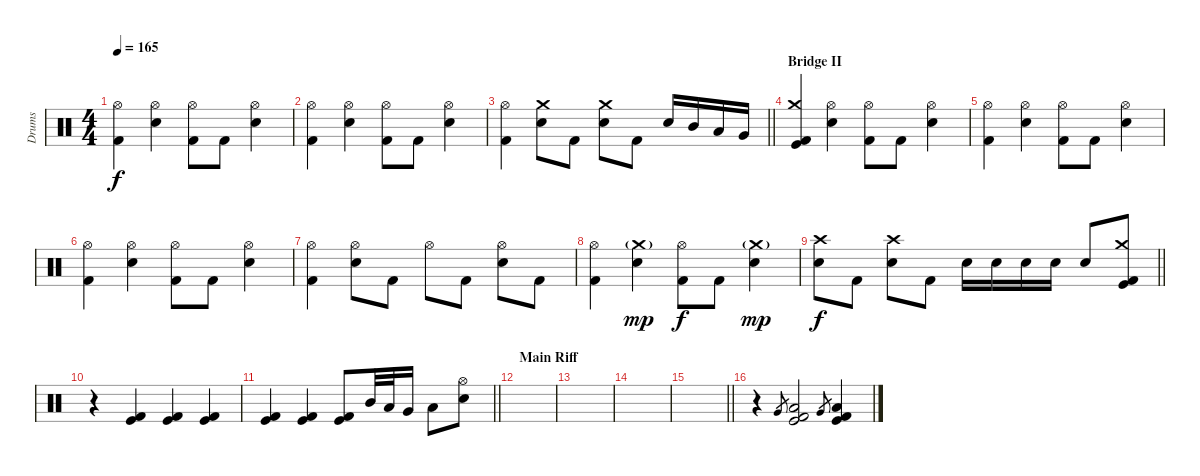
\track ("Drums" "Drums") {instrument percussion}
\staff {score}
\articulation defaults
\ts (4 4)
\tempo 165
\clef neutral
\ks c
("Hi-Hat (open)" "Kick (hit) 2").4{dy f} ("Hi-Hat (open)" "Electric Snare (hit)").4 ("Hi-Hat (open)" "Kick (hit) 2").8 "Kick (hit) 2".8 ("Hi-Hat (open)" "Electric Snare (hit)").4 |
("Hi-Hat (open)" "Kick (hit) 2").4 ("Hi-Hat (open)" "Electric Snare (hit)").4 ("Hi-Hat (open)" "Kick (hit) 2").8 "Kick (hit) 2".8 ("Hi-Hat (open)" "Electric Snare (hit)").4 |
\barLineRight lightlight
("Hi-Hat (open)" "Kick (hit) 2").4 ("Crash medium (hit)" "Electric Snare (hit)").8 "Kick (hit) 2".8 ("Crash medium (hit)" "Electric Snare (hit)").8 "Kick (hit) 2".8 "Electric Snare (hit)".16 "Mid Tom (hit)".16 "Low Tom (hit)".16 "Very Low Tom (hit)".16 |
\section ("" "Bridge II")
("Crash medium (hit)" "Kick (hit) 2" "Kick (hit)").4 ("Hi-Hat (open)" "Electric Snare (hit)").4 ("Hi-Hat (open)" "Kick (hit) 2").8 "Kick (hit) 2".8 ("Hi-Hat (open)" "Electric Snare (hit)").4 |
("Hi-Hat (open)" "Kick (hit) 2").4 ("Hi-Hat (open)" "Electric Snare (hit)").4 ("Hi-Hat (open)" "Kick (hit) 2").8 "Kick (hit) 2".8 ("Hi-Hat (open)" "Electric Snare (hit)").4 |
("Hi-Hat (open)" "Kick (hit) 2").4 ("Hi-Hat (open)" "Electric Snare (hit)").4 ("Hi-Hat (open)" "Kick (hit) 2").8 "Kick (hit) 2".8 ("Hi-Hat (open)" "Electric Snare (hit)").4 |
("Hi-Hat (open)" "Kick (hit) 2").4 ("Hi-Hat (open)" "Electric Snare (hit)").8 "Kick (hit) 2".8 "Hi-Hat (open)".8 "Kick (hit) 2".8 ("Hi-Hat (open)" "Electric Snare (hit)").8 "Kick (hit) 2".8 |
("Hi-Hat (open)" "Kick (hit) 2").4 ("Crash medium (hit)"{g} "Electric Snare (hit)").4{dy mp} ("Hi-Hat (open)" "Kick (hit) 2").8{dy f} "Kick (hit) 2".8 ("Crash medium (hit)"{g} "Electric Snare (hit)").4{dy mp} |
\barLineRight lightlight
("Crash high (hit)" "Electric Snare (hit)").8{dy f} "Kick (hit) 2".8 ("Crash high (hit)" "Electric Snare (hit)").8 "Kick (hit) 2".8 "Electric Snare (hit)".16 "Electric Snare (hit)".16 "Electric Snare (hit)".16 "Electric Snare (hit)".16 "Electric Snare (hit)".8 ("Crash medium (hit)" "Kick (hit) 2" "Kick (hit)").8 |
r.4 ("Kick (hit) 2" "Kick (hit)").4 ("Kick (hit) 2" "Kick (hit)").4 ("Kick (hit) 2" "Kick (hit)").4 |
\barLineRight lightlight
("Kick (hit) 2" "Kick (hit)").4 ("Kick (hit) 2" "Kick (hit)").4 ("Kick (hit) 2" "Kick (hit)").8 "Mid Tom (hit)".32 "Low Tom (hit)".32 "Very Low Tom (hit)".16 "Low Floor Tom (hit)".8 ("Hi-Hat (open)" "Electric Snare (hit)").8 |
\section ("" "Main Riff")
|
|
|
\barLineRight lightlight
|
r.4 "Very Low Tom (hit)".8{gr} ("Low Floor Tom (hit)" "Kick (hit) 2" "Kick (hit)").2 "Very Low Tom (hit)".8{gr} ("Low Floor Tom (hit)" "Kick (hit) 2" "Kick (hit)").4
